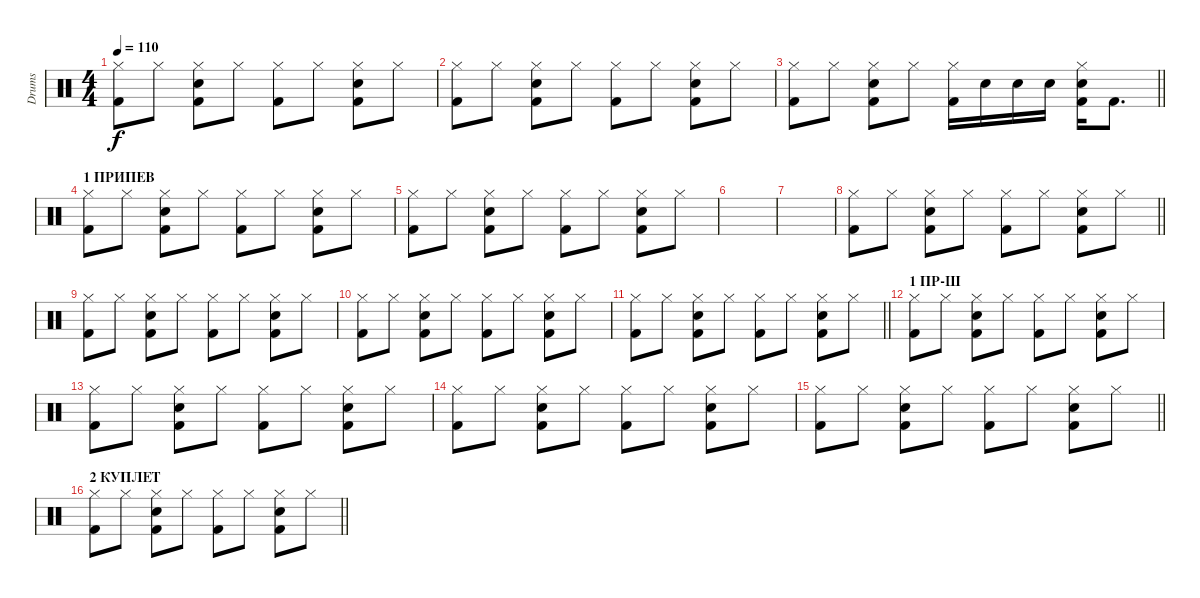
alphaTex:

\track ("Drums" "Drums") {instrument percussion}
\staff {score}
\articulation defaults
\ts (4 4)
\tempo 110
\clef neutral
\ks c
("Hi-Hat (closed)" "Kick (hit) 2").8{dy f} "Hi-Hat (closed)".8 ("Hi-Hat (closed)" "Snare (hit) 2" "Kick (hit) 2").8 "Hi-Hat (closed)".8 ("Hi-Hat (closed)" "Kick (hit) 2").8 "Hi-Hat (closed)".8 ("Hi-Hat (closed)" "Snare (hit) 2" "Kick (hit) 2").8 "Hi-Hat (closed)".8 |
("Hi-Hat (closed)" "Kick (hit) 2").8 "Hi-Hat (closed)".8 ("Hi-Hat (closed)" "Snare (hit) 2" "Kick (hit) 2").8 "Hi-Hat (closed)".8 ("Hi-Hat (closed)" "Kick (hit) 2").8 "Hi-Hat (closed)".8 ("Hi-Hat (closed)" "Snare (hit) 2" "Kick (hit) 2").8 "Hi-Hat (closed)".8 |
\barLineRight lightlight
("Hi-Hat (closed)" "Kick (hit) 2").8 "Hi-Hat (closed)".8 ("Hi-Hat (closed)" "Snare (hit) 2" "Kick (hit) 2").8 "Hi-Hat (closed)".8 ("Hi-Hat (closed)" "Kick (hit) 2").16 "Snare (hit) 2".16 "Snare (hit) 2".16 "Snare (hit) 2".16 ("Hi-Hat (closed)" "Snare (hit) 2" "Kick (hit) 2").16 "Kick (hit) 2".8{d} |
\section ("" "1 ПРИПЕВ")
("Hi-Hat (closed)" "Kick (hit) 2").8 "Hi-Hat (closed)".8 ("Hi-Hat (closed)" "Snare (hit) 2" "Kick (hit) 2").8 "Hi-Hat (closed)".8 ("Hi-Hat (closed)" "Kick (hit) 2").8 "Hi-Hat (closed)".8 ("Hi-Hat (closed)" "Snare (hit) 2" "Kick (hit) 2").8 "Hi-Hat (closed)".8 |
("Hi-Hat (closed)" "Kick (hit) 2").8 "Hi-Hat (closed)".8 ("Hi-Hat (closed)" "Snare (hit) 2" "Kick (hit) 2").8 "Hi-Hat (closed)".8 ("Hi-Hat (closed)" "Kick (hit) 2").8 "Hi-Hat (closed)".8 ("Hi-Hat (closed)" "Snare (hit) 2" "Kick (hit) 2").8 "Hi-Hat (closed)".8 |
|
|
\barLineRight lightlight
("Hi-Hat (closed)" "Kick (hit) 2").8 "Hi-Hat (closed)".8 ("Hi-Hat (closed)" "Snare (hit) 2" "Kick (hit) 2").8 "Hi-Hat (closed)".8 ("Hi-Hat (closed)" "Kick (hit) 2").8 "Hi-Hat (closed)".8 ("Hi-Hat (closed)" "Snare (hit) 2" "Kick (hit) 2").8 "Hi-Hat (closed)".8 |
("Hi-Hat (closed)" "Kick (hit) 2").8 "Hi-Hat (closed)".8 ("Hi-Hat (closed)" "Snare (hit) 2" "Kick (hit) 2").8 "Hi-Hat (closed)".8 ("Hi-Hat (closed)" "Kick (hit) 2").8 "Hi-Hat (closed)".8 ("Hi-Hat (closed)" "Snare (hit) 2" "Kick (hit) 2").8 "Hi-Hat (closed)".8 |
("Hi-Hat (closed)" "Kick (hit) 2").8 "Hi-Hat (closed)".8 ("Hi-Hat (closed)" "Snare (hit) 2" "Kick (hit) 2").8 "Hi-Hat (closed)".8 ("Hi-Hat (closed)" "Kick (hit) 2").8 "Hi-Hat (closed)".8 ("Hi-Hat (closed)" "Snare (hit) 2" "Kick (hit) 2").8 "Hi-Hat (closed)".8 |
\barLineRight lightlight
("Hi-Hat (closed)" "Kick (hit) 2").8 "Hi-Hat (closed)".8 ("Hi-Hat (closed)" "Snare (hit) 2" "Kick (hit) 2").8 "Hi-Hat (closed)".8 ("Hi-Hat (closed)" "Kick (hit) 2").8 "Hi-Hat (closed)".8 ("Hi-Hat (closed)" "Snare (hit) 2" "Kick (hit) 2").8 "Hi-Hat (closed)".8 |
\section ("" "1 ПР-Ш")
("Hi-Hat (closed)" "Kick (hit) 2").8 "Hi-Hat (closed)".8 ("Hi-Hat (closed)" "Snare (hit) 2" "Kick (hit) 2").8 "Hi-Hat (closed)".8 ("Hi-Hat (closed)" "Kick (hit) 2").8 "Hi-Hat (closed)".8 ("Hi-Hat (closed)" "Snare (hit) 2" "Kick (hit) 2").8 "Hi-Hat (closed)".8 |
("Hi-Hat (closed)" "Kick (hit) 2").8 "Hi-Hat (closed)".8 ("Hi-Hat (closed)" "Snare (hit) 2" "Kick (hit) 2").8 "Hi-Hat (closed)".8 ("Hi-Hat (closed)" "Kick (hit) 2").8 "Hi-Hat (closed)".8 ("Hi-Hat (closed)" "Snare (hit) 2" "Kick (hit) 2").8 "Hi-Hat (closed)".8 |
("Hi-Hat (closed)" "Kick (hit) 2").8 "Hi-Hat (closed)".8 ("Hi-Hat (closed)" "Snare (hit) 2" "Kick (hit) 2").8 "Hi-Hat (closed)".8 ("Hi-Hat (closed)" "Kick (hit) 2").8 "Hi-Hat (closed)".8 ("Hi-Hat (closed)" "Snare (hit) 2" "Kick (hit) 2").8 "Hi-Hat (closed)".8 |
\barLineRight lightlight
("Hi-Hat (closed)" "Kick (hit) 2").8 "Hi-Hat (closed)".8 ("Hi-Hat (closed)" "Snare (hit) 2" "Kick (hit) 2").8 "Hi-Hat (closed)".8 ("Hi-Hat (closed)" "Kick (hit) 2").8 "Hi-Hat (closed)".8 ("Hi-Hat (closed)" "Snare (hit) 2" "Kick (hit) 2").8 "Hi-Hat (closed)".8 |
\section ("" "2 КУПЛЕТ")
\barLineRight lightlight
("Hi-Hat (closed)" "Kick (hit) 2").8 "Hi-Hat (closed)".8 ("Hi-Hat (closed)" "Snare (hit) 2" "Kick (hit) 2").8 "Hi-Hat (closed)".8 ("Hi-Hat (closed)" "Kick (hit) 2").8 "Hi-Hat (closed)".8 ("Hi-Hat (closed)" "Snare (hit) 2" "Kick (hit) 2").8 "Hi-Hat (closed)".8
